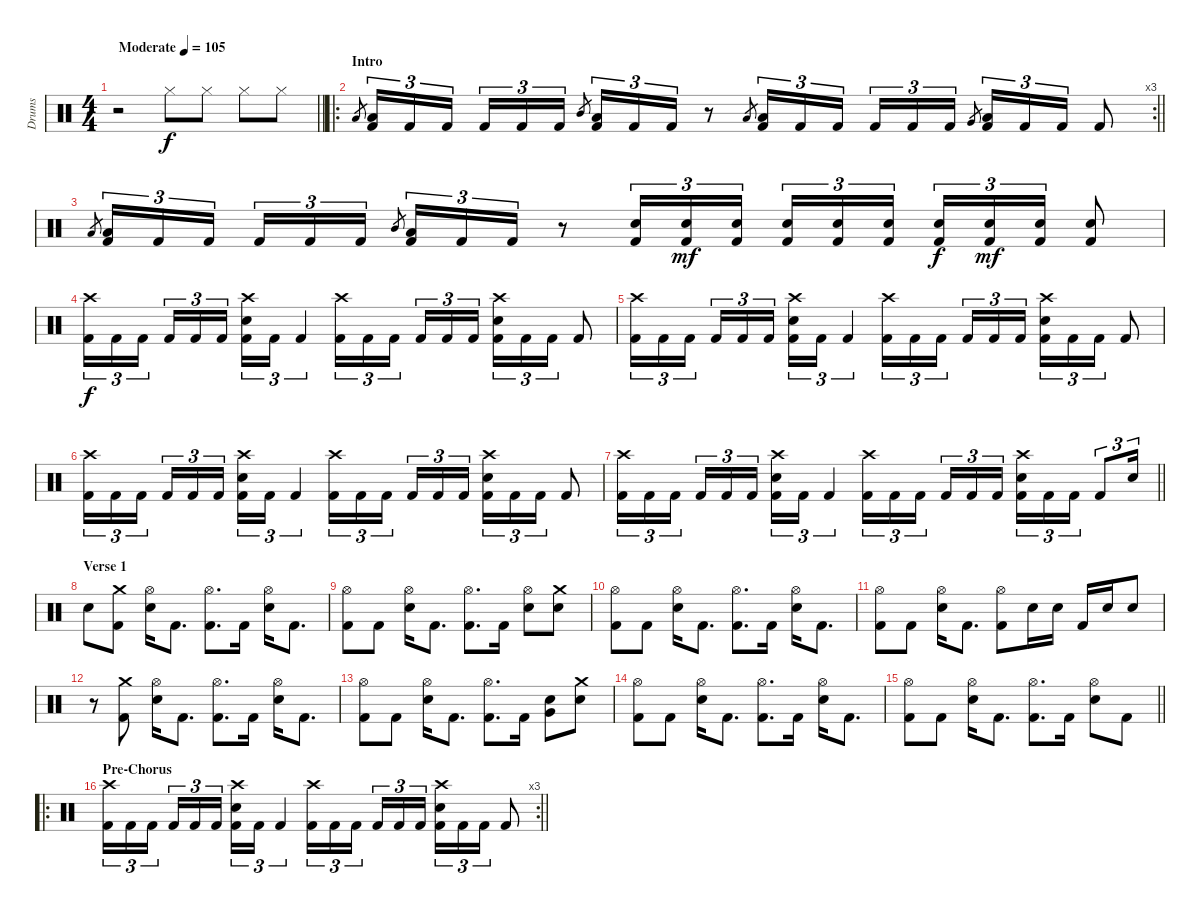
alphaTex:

\track ("Drums" "Drums") {instrument percussion}
\staff {score}
\articulation defaults
\ts (4 4)
\tempo (105 "Moderate")
\clef neutral
\barLineRight lightlight
\ks c
r.2{dy f} "Hi-Hat (closed)".8 "Hi-Hat (closed)".8 "Hi-Hat (closed)".8 "Hi-Hat (closed)".8 |
\ro
\rc 3
\section ("" "Intro")
\barLineRight lightlight "Low Tom (hit)".8{gr}
("Low Floor Tom (hit)" "Kick (hit) 2").16{tu (3 2)} "Kick (hit) 2".16{tu (3 2)} "Kick (hit) 2".16{tu (3 2) beam splitsecondary} "Kick (hit) 2".16{tu (3 2)} "Kick (hit) 2".16{tu (3 2)} "Kick (hit) 2".16{tu (3 2)} "Mid Tom (hit)".8{gr} ("Low Floor Tom (hit)" "Kick (hit) 2").16{tu (3 2)} "Kick (hit) 2".16{tu (3 2)} "Kick (hit) 2".16{tu (3 2)} r.8 "Low Tom (hit)".8{gr} ("Low Floor Tom (hit)" "Kick (hit) 2").16{tu (3 2)} "Kick (hit) 2".16{tu (3 2)} "Kick (hit) 2".16{tu (3 2) beam splitsecondary} "Kick (hit) 2".16{tu (3 2)} "Kick (hit) 2".16{tu (3 2)} "Kick (hit) 2".16{tu (3 2)} "Very Low Tom (hit)".8{gr} ("Low Floor Tom (hit)" "Kick (hit) 2").16{tu (3 2)} "Kick (hit) 2".16{tu (3 2)} "Kick (hit) 2".16{tu (3 2)} "Kick (hit) 2".8 |
"Low Tom (hit)".8{gr} ("Low Floor Tom (hit)" "Kick (hit) 2").16{tu (3 2)} "Kick (hit) 2".16{tu (3 2)} "Kick (hit) 2".16{tu (3 2) beam splitsecondary} "Kick (hit) 2".16{tu (3 2)} "Kick (hit) 2".16{tu (3 2)} "Kick (hit) 2".16{tu (3 2)} "Mid Tom (hit)".8{gr} ("Low Floor Tom (hit)" "Kick (hit) 2").16{tu (3 2)} "Kick (hit) 2".16{tu (3 2)} "Kick (hit) 2".16{tu (3 2)} r.8 ("Electric Snare (hit)" "Kick (hit) 2").16{tu (3 2)} ("Electric Snare (hit)" "Kick (hit) 2").16{tu (3 2) dy mf} ("Electric Snare (hit)" "Kick (hit) 2").16{tu (3 2) beam splitsecondary} ("Electric Snare (hit)" "Kick (hit) 2").16{tu (3 2)} ("Electric Snare (hit)" "Kick (hit) 2").16{tu (3 2)} ("Electric Snare (hit)" "Kick (hit) 2").16{tu (3 2)} ("Electric Snare (hit)" "Kick (hit) 2").16{tu (3 2) dy f} ("Electric Snare (hit)" "Kick (hit) 2").16{tu (3 2) dy mf} ("Electric Snare (hit)" "Kick (hit) 2").16{tu (3 2)} ("Electric Snare (hit)" "Kick (hit) 2").8 |
("Crash high (hit)" "Kick (hit) 2").16{tu (3 2) dy f} "Kick (hit) 2".16{tu (3 2)} "Kick (hit) 2".16{tu (3 2) beam splitsecondary} "Kick (hit) 2".16{tu (3 2)} "Kick (hit) 2".16{tu (3 2)} "Kick (hit) 2".16{tu (3 2)} ("Crash high (hit)" "Electric Snare (hit)" "Kick (hit) 2").16{tu (3 2)} "Kick (hit) 2".16{tu (3 2)} "Kick (hit) 2".4{tu (3 2)} ("Crash high (hit)" "Kick (hit) 2").16{tu (3 2)} "Kick (hit) 2".16{tu (3 2)} "Kick (hit) 2".16{tu (3 2) beam splitsecondary} "Kick (hit) 2".16{tu (3 2)} "Kick (hit) 2".16{tu (3 2)} "Kick (hit) 2".16{tu (3 2)} ("Crash high (hit)" "Electric Snare (hit)" "Kick (hit) 2").16{tu (3 2)} "Kick (hit) 2".16{tu (3 2)} "Kick (hit) 2".16{tu (3 2)} "Kick (hit) 2".8 |
("Crash high (hit)" "Kick (hit) 2").16{tu (3 2)} "Kick (hit) 2".16{tu (3 2)} "Kick (hit) 2".16{tu (3 2) beam splitsecondary} "Kick (hit) 2".16{tu (3 2)} "Kick (hit) 2".16{tu (3 2)} "Kick (hit) 2".16{tu (3 2)} ("Crash high (hit)" "Electric Snare (hit)" "Kick (hit) 2").16{tu (3 2)} "Kick (hit) 2".16{tu (3 2)} "Kick (hit) 2".4{tu (3 2)} ("Crash high (hit)" "Kick (hit) 2").16{tu (3 2)} "Kick (hit) 2".16{tu (3 2)} "Kick (hit) 2".16{tu (3 2) beam splitsecondary} "Kick (hit) 2".16{tu (3 2)} "Kick (hit) 2".16{tu (3 2)} "Kick (hit) 2".16{tu (3 2)} ("Crash high (hit)" "Electric Snare (hit)" "Kick (hit) 2").16{tu (3 2)} "Kick (hit) 2".16{tu (3 2)} "Kick (hit) 2".16{tu (3 2)} "Kick (hit) 2".8 |
("Crash high (hit)" "Kick (hit) 2").16{tu (3 2)} "Kick (hit) 2".16{tu (3 2)} "Kick (hit) 2".16{tu (3 2) beam splitsecondary} "Kick (hit) 2".16{tu (3 2)} "Kick (hit) 2".16{tu (3 2)} "Kick (hit) 2".16{tu (3 2)} ("Crash high (hit)" "Electric Snare (hit)" "Kick (hit) 2").16{tu (3 2)} "Kick (hit) 2".16{tu (3 2)} "Kick (hit) 2".4{tu (3 2)} ("Crash high (hit)" "Kick (hit) 2").16{tu (3 2)} "Kick (hit) 2".16{tu (3 2)} "Kick (hit) 2".16{tu (3 2) beam splitsecondary} "Kick (hit) 2".16{tu (3 2)} "Kick (hit) 2".16{tu (3 2)} "Kick (hit) 2".16{tu (3 2)} ("Crash high (hit)" "Electric Snare (hit)" "Kick (hit) 2").16{tu (3 2)} "Kick (hit) 2".16{tu (3 2)} "Kick (hit) 2".16{tu (3 2)} "Kick (hit) 2".8 |
\barLineRight lightlight
("Crash high (hit)" "Kick (hit) 2").16{tu (3 2)} "Kick (hit) 2".16{tu (3 2)} "Kick (hit) 2".16{tu (3 2) beam splitsecondary} "Kick (hit) 2".16{tu (3 2)} "Kick (hit) 2".16{tu (3 2)} "Kick (hit) 2".16{tu (3 2)} ("Crash high (hit)" "Electric Snare (hit)" "Kick (hit) 2").16{tu (3 2)} "Kick (hit) 2".16{tu (3 2)} "Kick (hit) 2".4{tu (3 2)} ("Crash high (hit)" "Kick (hit) 2").16{tu (3 2)} "Kick (hit) 2".16{tu (3 2)} "Kick (hit) 2".16{tu (3 2) beam splitsecondary} "Kick (hit) 2".16{tu (3 2)} "Kick (hit) 2".16{tu (3 2)} "Kick (hit) 2".16{tu (3 2)} ("Crash high (hit)" "Electric Snare (hit)" "Kick (hit) 2").16{tu (3 2)} "Kick (hit) 2".16{tu (3 2)} "Kick (hit) 2".16{tu (3 2)} "Kick (hit) 2".8{tu (3 2)} "Electric Snare (hit)".16{tu (3 2)} |
\section ("" "Verse 1")
"Electric Snare (hit)".8 ("Crash medium (hit)" "Kick (hit) 2").8 ("Hi-Hat (open)" "Electric Snare (hit)").16 "Kick (hit) 2".8{d} ("Hi-Hat (open)" "Kick (hit) 2").8{d} "Kick (hit) 2".16 ("Hi-Hat (open)" "Electric Snare (hit)").16 "Kick (hit) 2".8{d} |
("Hi-Hat (open)" "Kick (hit) 2").8 "Kick (hit) 2".8 ("Hi-Hat (open)" "Electric Snare (hit)").16 "Kick (hit) 2".8{d} ("Hi-Hat (open)" "Kick (hit) 2").8{d} "Kick (hit) 2".16 ("Hi-Hat (open)" "Electric Snare (hit)").8 ("Crash medium (hit)" "Electric Snare (hit)").8 |
("Hi-Hat (open)" "Kick (hit) 2").8 "Kick (hit) 2".8 ("Hi-Hat (open)" "Electric Snare (hit)").16 "Kick (hit) 2".8{d} ("Hi-Hat (open)" "Kick (hit) 2").8{d} "Kick (hit) 2".16 ("Hi-Hat (open)" "Electric Snare (hit)").16 "Kick (hit) 2".8{d} |
("Hi-Hat (open)" "Kick (hit) 2").8 "Kick (hit) 2".8 ("Hi-Hat (open)" "Electric Snare (hit)").16 "Kick (hit) 2".8{d} ("Hi-Hat (open)" "Kick (hit) 2").8 "Electric Snare (hit)".16 "Electric Snare (hit)".16 "Kick (hit) 2".16 "Electric Snare (hit)".16 "Electric Snare (hit)".8 |
r.8 ("Crash medium (hit)" "Kick (hit) 2").8 ("Hi-Hat (open)" "Electric Snare (hit)").16 "Kick (hit) 2".8{d} ("Hi-Hat (open)" "Kick (hit) 2").8{d} "Kick (hit) 2".16 ("Hi-Hat (open)" "Electric Snare (hit)").16 "Kick (hit) 2".8{d} |
("Hi-Hat (open)" "Kick (hit) 2").8 "Kick (hit) 2".8 ("Hi-Hat (open)" "Electric Snare (hit)").16 "Kick (hit) 2".8{d} ("Hi-Hat (open)" "Kick (hit) 2").8{d} "Kick (hit) 2".16 ("Very Low Tom (hit)" "Electric Snare (hit)").8 ("Crash medium (hit)" "Electric Snare (hit)").8 |
("Hi-Hat (open)" "Kick (hit) 2").8 "Kick (hit) 2".8 ("Hi-Hat (open)" "Electric Snare (hit)").16 "Kick (hit) 2".8{d} ("Hi-Hat (open)" "Kick (hit) 2").8{d} "Kick (hit) 2".16 ("Hi-Hat (open)" "Electric Snare (hit)").16 "Kick (hit) 2".8{d} |
\barLineRight lightlight
("Hi-Hat (open)" "Kick (hit) 2").8 "Kick (hit) 2".8 ("Hi-Hat (open)" "Electric Snare (hit)").16 "Kick (hit) 2".8{d} ("Hi-Hat (open)" "Kick (hit) 2").8{d} "Kick (hit) 2".16 ("Hi-Hat (open)" "Electric Snare (hit)").8 "Kick (hit) 2".8 |
\ro
\rc 3
\section ("" "Pre-Chorus")
\barLineRight lightlight
("Crash high (hit)" "Kick (hit) 2").16{tu (3 2)} "Kick (hit) 2".16{tu (3 2)} "Kick (hit) 2".16{tu (3 2) beam splitsecondary} "Kick (hit) 2".16{tu (3 2)} "Kick (hit) 2".16{tu (3 2)} "Kick (hit) 2".16{tu (3 2)} ("Crash high (hit)" "Electric Snare (hit)" "Kick (hit) 2").16{tu (3 2)} "Kick (hit) 2".16{tu (3 2)} "Kick (hit) 2".4{tu (3 2)} ("Crash high (hit)" "Kick (hit) 2").16{tu (3 2)} "Kick (hit) 2".16{tu (3 2)} "Kick (hit) 2".16{tu (3 2) beam splitsecondary} "Kick (hit) 2".16{tu (3 2)} "Kick (hit) 2".16{tu (3 2)} "Kick (hit) 2".16{tu (3 2)} ("Crash high (hit)" "Electric Snare (hit)" "Kick (hit) 2").16{tu (3 2)} "Kick (hit) 2".16{tu (3 2)} "Kick (hit) 2".16{tu (3 2)} "Kick (hit) 2".8
